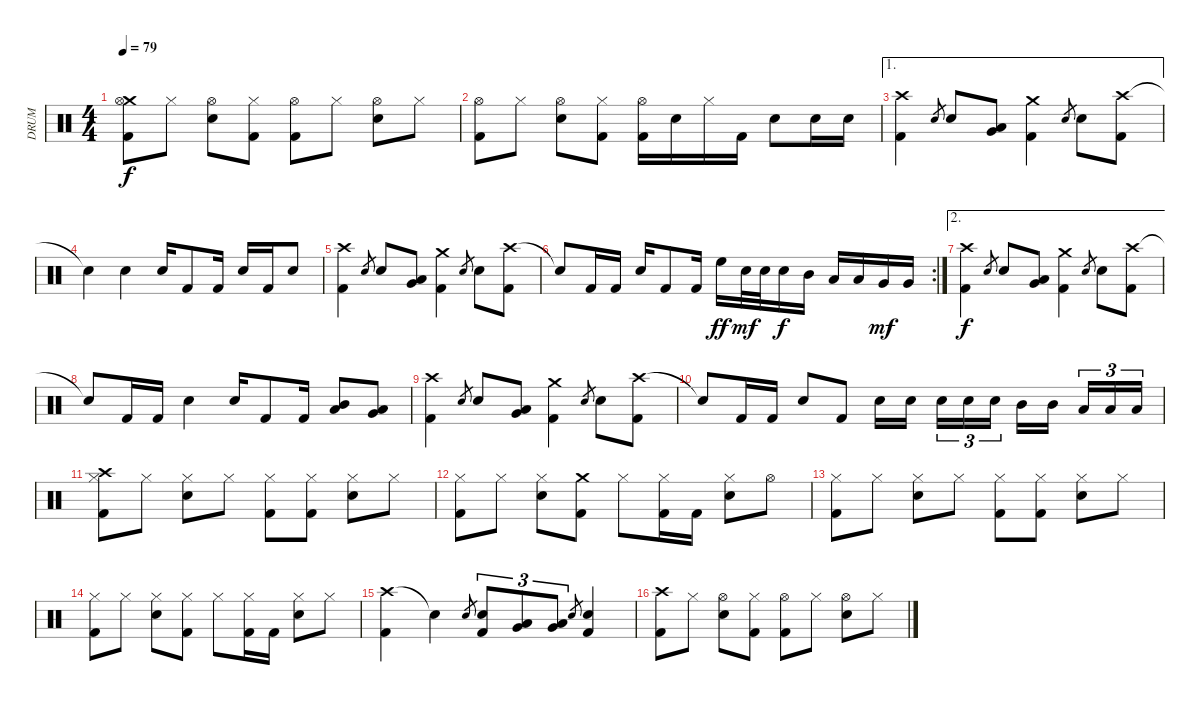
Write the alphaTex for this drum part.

\track ("DRUM" "DRUM") {instrument percussion}
\staff {score}
\articulation defaults
\ts (4 4)
\tempo 79
\clef neutral
\ks c
("Crash medium (hit)" "Hi-Hat (open)" "Kick (hit) 2").8{dy f} "Hi-Hat (closed)".8 ("Snare (hit) 2" "Hi-Hat (open)").8 ("Hi-Hat (closed)" "Kick (hit) 2").8 ("Hi-Hat (open)" "Kick (hit) 2").8 "Hi-Hat (closed)".8 ("Snare (hit) 2" "Hi-Hat (open)").8 "Hi-Hat (closed)".8 |
("Hi-Hat (open)" "Kick (hit) 2").8 "Hi-Hat (closed)".8 ("Snare (hit) 2" "Hi-Hat (open)").8 ("Hi-Hat (closed)" "Kick (hit) 2").8 ("Hi-Hat (open)" "Kick (hit) 2").16 "Snare (hit) 2".16 "Hi-Hat (closed)".16 "Kick (hit) 2".16 "Snare (hit) 2".8 "Snare (hit) 2".16 "Snare (hit) 2".16 |
\ae 1
("Crash high (hit)" "Kick (hit) 2").4 "Snare (hit) 2".8{gr} "Snare (hit) 2".8 ("Low Tom (hit)" "Very Low Tom (hit)").8 ("Crash medium (hit)" "Kick (hit) 2").4 "Snare (hit) 2".8{gr} "Snare (hit) 2".8 ("Crash high (hit)" "Kick (hit) 2").8 |
"Snare (hit)"{t}.4 "Snare (hit) 2".4 "Snare (hit) 2".16 "Kick (hit) 2".8 "Kick (hit) 2".16 "Snare (hit) 2".16 "Kick (hit) 2".16 "Snare (hit) 2".8 |
("Crash high (hit)" "Kick (hit) 2").4 "Snare (hit) 2".8{gr} "Snare (hit) 2".8 ("Low Tom (hit)" "Very Low Tom (hit)").8 ("Crash medium (hit)" "Kick (hit) 2").4 "Snare (hit) 2".8{gr} "Snare (hit) 2".8 ("Crash high (hit)" "Kick (hit) 2").8 |
\rc 2 "Snare (hit)"{t}.8 "Kick (hit) 2".16 "Kick (hit) 2".16 "Snare (hit) 2".16 "Kick (hit) 2".8 "Kick (hit) 2".16 "High Floor Tom (hit)".16{dy ff} "Snare (hit) 2".32{dy mf} "Snare (hit) 2".32 "Snare (hit) 2".16{dy f} "Mid Tom (hit)".16 "Low Tom (hit)".16 "Low Tom (hit)".16 "Very Low Tom (hit)".16{dy mf} "Very Low Tom (hit)".16
|
\ae 2
("Crash high (hit)" "Kick (hit) 2").4{dy f} "Snare (hit) 2".8{gr} "Snare (hit) 2".8 ("Low Tom (hit)" "Very Low Tom (hit)").8 ("Crash medium (hit)" "Kick (hit) 2").4 "Snare (hit) 2".8{gr} "Snare (hit) 2".8 ("Crash high (hit)" "Kick (hit) 2").8 |
"Snare (hit)"{t}.8 "Kick (hit) 2".16 "Kick (hit) 2".16 "Snare (hit) 2".4 "Snare (hit) 2".16 "Kick (hit) 2".8 "Kick (hit) 2".16 ("Mid Tom (hit)" "Low Tom (hit)").8 ("Low Tom (hit)" "Very Low Tom (hit)").8 |
("Crash high (hit)" "Kick (hit) 2").4 "Snare (hit) 2".8{gr} "Snare (hit) 2".8 ("Low Tom (hit)" "Very Low Tom (hit)").8 ("Crash medium (hit)" "Kick (hit) 2").4 "Snare (hit) 2".8{gr} "Snare (hit) 2".8 ("Crash high (hit)" "Kick (hit) 2").8 |
"Snare (hit)"{t}.8 "Kick (hit) 2".16 "Kick (hit) 2".16 "Snare (hit) 2".8 "Kick (hit) 2".8 "Snare (hit) 2".16 "Snare (hit) 2".16 "Snare (hit) 2".16{tu (3 2)} "Snare (hit) 2".16{tu (3 2)} "Snare (hit) 2".16{tu (3 2)} "Mid Tom (hit)".16 "Mid Tom (hit)".16 "Low Tom (hit)".16{tu (3 2)} "Low Tom (hit)".16{tu (3 2)} "Low Tom (hit)".16{tu (3 2)} |
("Crash high (hit)" "Hi-Hat (closed)" "Kick (hit) 2").8 "Hi-Hat (closed)".8 ("Snare (hit) 2" "Hi-Hat (closed)").8 "Hi-Hat (closed)".8 ("Hi-Hat (closed)" "Kick (hit) 2").8 ("Hi-Hat (closed)" "Kick (hit) 2").8 ("Snare (hit) 2" "Hi-Hat (closed)").8 "Hi-Hat (closed)".8 |
("Hi-Hat (closed)" "Kick (hit) 2").8 "Hi-Hat (closed)".8 ("Snare (hit) 2" "Hi-Hat (closed)").8 ("Crash medium (hit)" "Kick (hit) 2").8 "Hi-Hat (closed)".8 ("Hi-Hat (closed)" "Kick (hit) 2").16 "Kick (hit) 2".16 ("Snare (hit) 2" "Hi-Hat (closed)").8 "Hi-Hat (open)".8 |
("Hi-Hat (closed)" "Kick (hit) 2").8 "Hi-Hat (closed)".8 ("Snare (hit) 2" "Hi-Hat (closed)").8 "Hi-Hat (closed)".8 ("Hi-Hat (closed)" "Kick (hit) 2").8 ("Hi-Hat (closed)" "Kick (hit) 2").8 ("Snare (hit) 2" "Hi-Hat (closed)").8 "Hi-Hat (closed)".8 |
("Hi-Hat (closed)" "Kick (hit) 2").8 "Hi-Hat (closed)".8 ("Snare (hit) 2" "Hi-Hat (closed)").8 ("Hi-Hat (closed)" "Kick (hit) 2").8 "Hi-Hat (closed)".8 ("Hi-Hat (closed)" "Kick (hit) 2").16 "Kick (hit) 2".16 ("Snare (hit) 2" "Hi-Hat (closed)").8 "Hi-Hat (closed)".8 |
("Crash high (hit)" "Kick (hit) 2").4 "Snare (hit)"{t}.4 "Snare (hit) 2".8{gr} ("Snare (hit) 2" "Kick (hit) 2").8{tu (3 2)} ("Low Tom (hit)" "Very Low Tom (hit)").8{tu (3 2)} ("Very Low Tom (hit)" "Low Floor Tom (hit)").8{tu (3 2)} "Snare (hit) 2".8{gr} ("Snare (hit) 2" "Kick (hit) 2").4 |
("Crash high (hit)" "Kick (hit) 2").8 "Hi-Hat (closed)".8 ("Snare (hit) 2" "Hi-Hat (open)").8 ("Hi-Hat (closed)" "Kick (hit) 2").8 ("Hi-Hat (open)" "Kick (hit) 2").8 "Hi-Hat (closed)".8 ("Snare (hit) 2" "Hi-Hat (open)").8 "Hi-Hat (closed)".8
